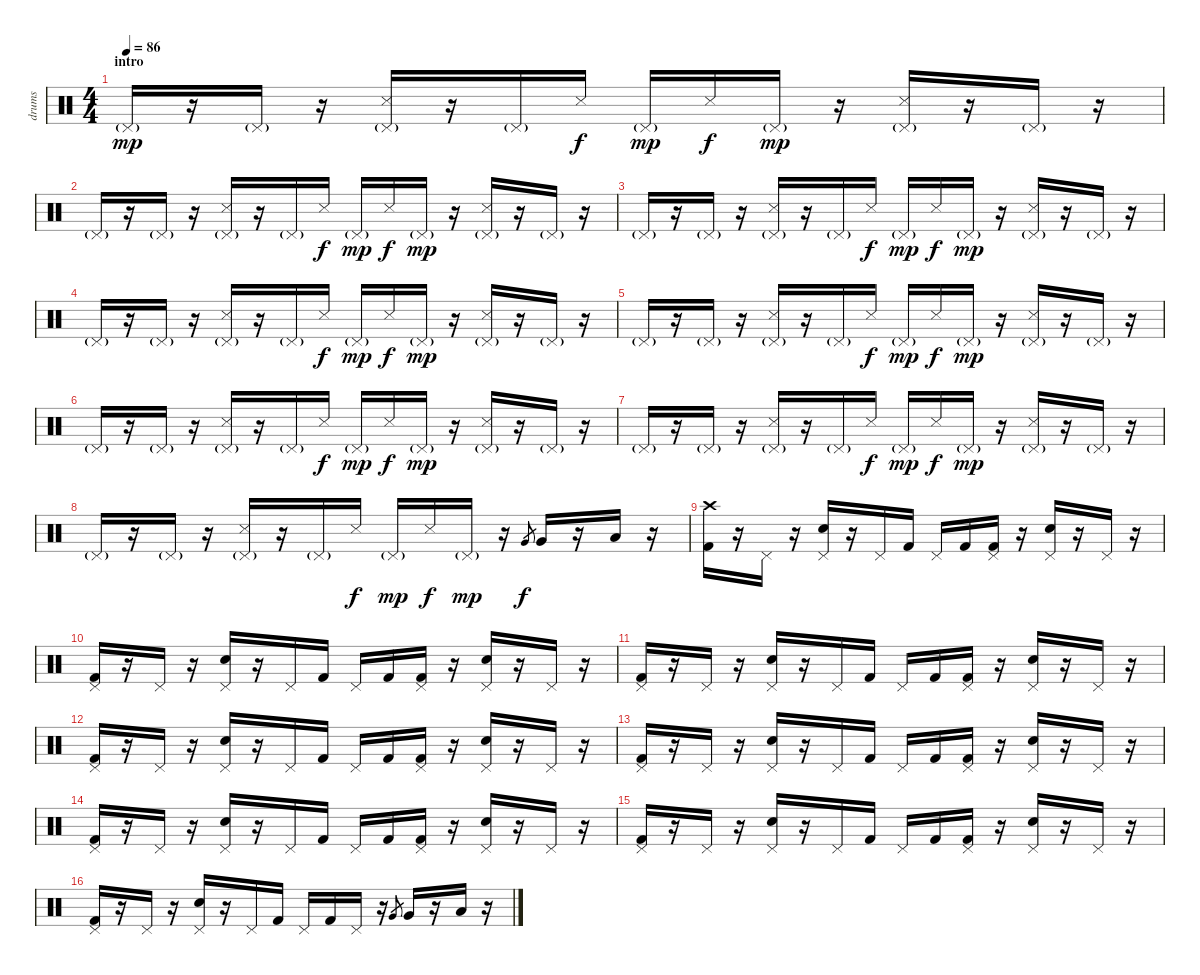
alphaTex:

\track ("drums" "drums") {instrument percussion}
\staff {score}
\articulation defaults
\ts (4 4)
\section ("" "intro")
\tempo 86
\clef neutral
\ks c "Pedal Hi-Hat (hit)"{g}.16{dy mp}
r.16 "Pedal Hi-Hat (hit)"{g}.16 r.16 ("Snare (side stick) 3" "Pedal Hi-Hat (hit)"{g}).16 r.16 "Pedal Hi-Hat (hit)"{g}.16 "Snare (side stick) 3".16{dy f} "Pedal Hi-Hat (hit)"{g}.16{dy mp} "Snare (side stick) 3".16{dy f} "Pedal Hi-Hat (hit)"{g}.16{dy mp} r.16 ("Snare (side stick) 3" "Pedal Hi-Hat (hit)"{g}).16 r.16 "Pedal Hi-Hat (hit)"{g}.16 r.16 |
"Pedal Hi-Hat (hit)"{g}.16 r.16 "Pedal Hi-Hat (hit)"{g}.16 r.16 ("Snare (side stick) 3" "Pedal Hi-Hat (hit)"{g}).16 r.16 "Pedal Hi-Hat (hit)"{g}.16 "Snare (side stick) 3".16{dy f} "Pedal Hi-Hat (hit)"{g}.16{dy mp} "Snare (side stick) 3".16{dy f} "Pedal Hi-Hat (hit)"{g}.16{dy mp} r.16 ("Snare (side stick) 3" "Pedal Hi-Hat (hit)"{g}).16 r.16 "Pedal Hi-Hat (hit)"{g}.16 r.16 |
"Pedal Hi-Hat (hit)"{g}.16 r.16 "Pedal Hi-Hat (hit)"{g}.16 r.16 ("Snare (side stick) 3" "Pedal Hi-Hat (hit)"{g}).16 r.16 "Pedal Hi-Hat (hit)"{g}.16 "Snare (side stick) 3".16{dy f} "Pedal Hi-Hat (hit)"{g}.16{dy mp} "Snare (side stick) 3".16{dy f} "Pedal Hi-Hat (hit)"{g}.16{dy mp} r.16 ("Snare (side stick) 3" "Pedal Hi-Hat (hit)"{g}).16 r.16 "Pedal Hi-Hat (hit)"{g}.16 r.16 |
"Pedal Hi-Hat (hit)"{g}.16 r.16 "Pedal Hi-Hat (hit)"{g}.16 r.16 ("Snare (side stick) 3" "Pedal Hi-Hat (hit)"{g}).16 r.16 "Pedal Hi-Hat (hit)"{g}.16 "Snare (side stick) 3".16{dy f} "Pedal Hi-Hat (hit)"{g}.16{dy mp} "Snare (side stick) 3".16{dy f} "Pedal Hi-Hat (hit)"{g}.16{dy mp} r.16 ("Snare (side stick) 3" "Pedal Hi-Hat (hit)"{g}).16 r.16 "Pedal Hi-Hat (hit)"{g}.16 r.16 |
"Pedal Hi-Hat (hit)"{g}.16 r.16 "Pedal Hi-Hat (hit)"{g}.16 r.16 ("Snare (side stick) 3" "Pedal Hi-Hat (hit)"{g}).16 r.16 "Pedal Hi-Hat (hit)"{g}.16 "Snare (side stick) 3".16{dy f} "Pedal Hi-Hat (hit)"{g}.16{dy mp} "Snare (side stick) 3".16{dy f} "Pedal Hi-Hat (hit)"{g}.16{dy mp} r.16 ("Snare (side stick) 3" "Pedal Hi-Hat (hit)"{g}).16 r.16 "Pedal Hi-Hat (hit)"{g}.16 r.16 |
"Pedal Hi-Hat (hit)"{g}.16 r.16 "Pedal Hi-Hat (hit)"{g}.16 r.16 ("Snare (side stick) 3" "Pedal Hi-Hat (hit)"{g}).16 r.16 "Pedal Hi-Hat (hit)"{g}.16 "Snare (side stick) 3".16{dy f} "Pedal Hi-Hat (hit)"{g}.16{dy mp} "Snare (side stick) 3".16{dy f} "Pedal Hi-Hat (hit)"{g}.16{dy mp} r.16 ("Snare (side stick) 3" "Pedal Hi-Hat (hit)"{g}).16 r.16 "Pedal Hi-Hat (hit)"{g}.16 r.16 |
"Pedal Hi-Hat (hit)"{g}.16 r.16 "Pedal Hi-Hat (hit)"{g}.16 r.16 ("Snare (side stick) 3" "Pedal Hi-Hat (hit)"{g}).16 r.16 "Pedal Hi-Hat (hit)"{g}.16 "Snare (side stick) 3".16{dy f} "Pedal Hi-Hat (hit)"{g}.16{dy mp} "Snare (side stick) 3".16{dy f} "Pedal Hi-Hat (hit)"{g}.16{dy mp} r.16 ("Snare (side stick) 3" "Pedal Hi-Hat (hit)"{g}).16 r.16 "Pedal Hi-Hat (hit)"{g}.16 r.16 |
"Pedal Hi-Hat (hit)"{g}.16 r.16 "Pedal Hi-Hat (hit)"{g}.16 r.16 ("Snare (side stick) 3" "Pedal Hi-Hat (hit)"{g}).16 r.16 "Pedal Hi-Hat (hit)"{g}.16 "Snare (side stick) 3".16{dy f} "Pedal Hi-Hat (hit)"{g}.16{dy mp} "Snare (side stick) 3".16{dy f} "Pedal Hi-Hat (hit)"{g}.16{dy mp} r.16 "Very Low Tom (hit)".8{gr dy f} "Very Low Tom (hit)".16 r.16 "Low Tom (hit)".16 r.16 |
("Kick (hit) 2" "Crash high (hit)").16 r.16 "Pedal Hi-Hat (hit)".16 r.16 ("Electric Snare (hit)" "Pedal Hi-Hat (hit)").16 r.16 "Pedal Hi-Hat (hit)".16 "Kick (hit) 2".16 "Pedal Hi-Hat (hit)".16 "Kick (hit) 2".16 ("Kick (hit) 2" "Pedal Hi-Hat (hit)").16 r.16 ("Electric Snare (hit)" "Pedal Hi-Hat (hit)").16 r.16 "Pedal Hi-Hat (hit)".16 r.16 |
("Kick (hit) 2" "Pedal Hi-Hat (hit)").16 r.16 "Pedal Hi-Hat (hit)".16 r.16 ("Electric Snare (hit)" "Pedal Hi-Hat (hit)").16 r.16 "Pedal Hi-Hat (hit)".16 "Kick (hit) 2".16 "Pedal Hi-Hat (hit)".16 "Kick (hit) 2".16 ("Kick (hit) 2" "Pedal Hi-Hat (hit)").16 r.16 ("Electric Snare (hit)" "Pedal Hi-Hat (hit)").16 r.16 "Pedal Hi-Hat (hit)".16 r.16 |
("Kick (hit) 2" "Pedal Hi-Hat (hit)").16 r.16 "Pedal Hi-Hat (hit)".16 r.16 ("Electric Snare (hit)" "Pedal Hi-Hat (hit)").16 r.16 "Pedal Hi-Hat (hit)".16 "Kick (hit) 2".16 "Pedal Hi-Hat (hit)".16 "Kick (hit) 2".16 ("Kick (hit) 2" "Pedal Hi-Hat (hit)").16 r.16 ("Electric Snare (hit)" "Pedal Hi-Hat (hit)").16 r.16 "Pedal Hi-Hat (hit)".16 r.16 |
("Kick (hit) 2" "Pedal Hi-Hat (hit)").16 r.16 "Pedal Hi-Hat (hit)".16 r.16 ("Electric Snare (hit)" "Pedal Hi-Hat (hit)").16 r.16 "Pedal Hi-Hat (hit)".16 "Kick (hit) 2".16 "Pedal Hi-Hat (hit)".16 "Kick (hit) 2".16 ("Kick (hit) 2" "Pedal Hi-Hat (hit)").16 r.16 ("Electric Snare (hit)" "Pedal Hi-Hat (hit)").16 r.16 "Pedal Hi-Hat (hit)".16 r.16 |
("Kick (hit) 2" "Pedal Hi-Hat (hit)").16 r.16 "Pedal Hi-Hat (hit)".16 r.16 ("Electric Snare (hit)" "Pedal Hi-Hat (hit)").16 r.16 "Pedal Hi-Hat (hit)".16 "Kick (hit) 2".16 "Pedal Hi-Hat (hit)".16 "Kick (hit) 2".16 ("Kick (hit) 2" "Pedal Hi-Hat (hit)").16 r.16 ("Electric Snare (hit)" "Pedal Hi-Hat (hit)").16 r.16 "Pedal Hi-Hat (hit)".16 r.16 |
("Kick (hit) 2" "Pedal Hi-Hat (hit)").16 r.16 "Pedal Hi-Hat (hit)".16 r.16 ("Electric Snare (hit)" "Pedal Hi-Hat (hit)").16 r.16 "Pedal Hi-Hat (hit)".16 "Kick (hit) 2".16 "Pedal Hi-Hat (hit)".16 "Kick (hit) 2".16 ("Kick (hit) 2" "Pedal Hi-Hat (hit)").16 r.16 ("Electric Snare (hit)" "Pedal Hi-Hat (hit)").16 r.16 "Pedal Hi-Hat (hit)".16 r.16 |
("Kick (hit) 2" "Pedal Hi-Hat (hit)").16 r.16 "Pedal Hi-Hat (hit)".16 r.16 ("Electric Snare (hit)" "Pedal Hi-Hat (hit)").16 r.16 "Pedal Hi-Hat (hit)".16 "Kick (hit) 2".16 "Pedal Hi-Hat (hit)".16 "Kick (hit) 2".16 ("Kick (hit) 2" "Pedal Hi-Hat (hit)").16 r.16 ("Electric Snare (hit)" "Pedal Hi-Hat (hit)").16 r.16 "Pedal Hi-Hat (hit)".16 r.16 |
("Kick (hit) 2" "Pedal Hi-Hat (hit)").16 r.16 "Pedal Hi-Hat (hit)".16 r.16 ("Electric Snare (hit)" "Pedal Hi-Hat (hit)").16 r.16 "Pedal Hi-Hat (hit)".16 "Kick (hit) 2".16 "Pedal Hi-Hat (hit)".16 "Kick (hit) 2".16 "Pedal Hi-Hat (hit)".16 r.16 "Very Low Tom (hit)".8{gr} "Very Low Tom (hit)".16 r.16 "Low Tom (hit)".16 r.16
